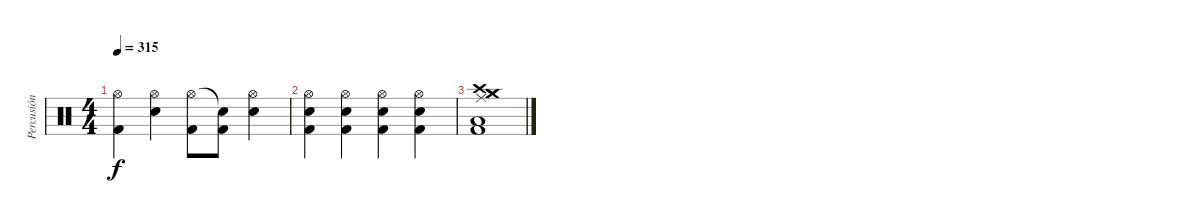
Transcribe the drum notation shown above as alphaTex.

\track ("Percusión" "Percusión") {instrument percussion}
\staff {score}
\articulation defaults
\ts (4 4)
\tempo 315
\clef neutral
\ks c
("Hi-Hat (open)" "Kick (hit) 2").4{dy f} ("Hi-Hat (open)" "Snare (hit) 2").4 ("Hi-Hat (open)" "Kick (hit) 2").8 ("Snare (hit)"{t} "Kick (hit) 2").8 ("Hi-Hat (open)" "Snare (hit) 2").4 |
("Hi-Hat (open)" "Snare (hit) 2" "Kick (hit) 2").4 ("Hi-Hat (open)" "Snare (hit) 2" "Kick (hit) 2").4 ("Hi-Hat (open)" "Snare (hit) 2" "Kick (hit) 2").4 ("Hi-Hat (open)" "Snare (hit) 2" "Kick (hit) 2").4 |
("Crash high (hit)" "Crash medium (hit)" "Ride (middle)" "Low Floor Tom (hit)" "Kick (hit) 2" "Crash medium (hit)").1
